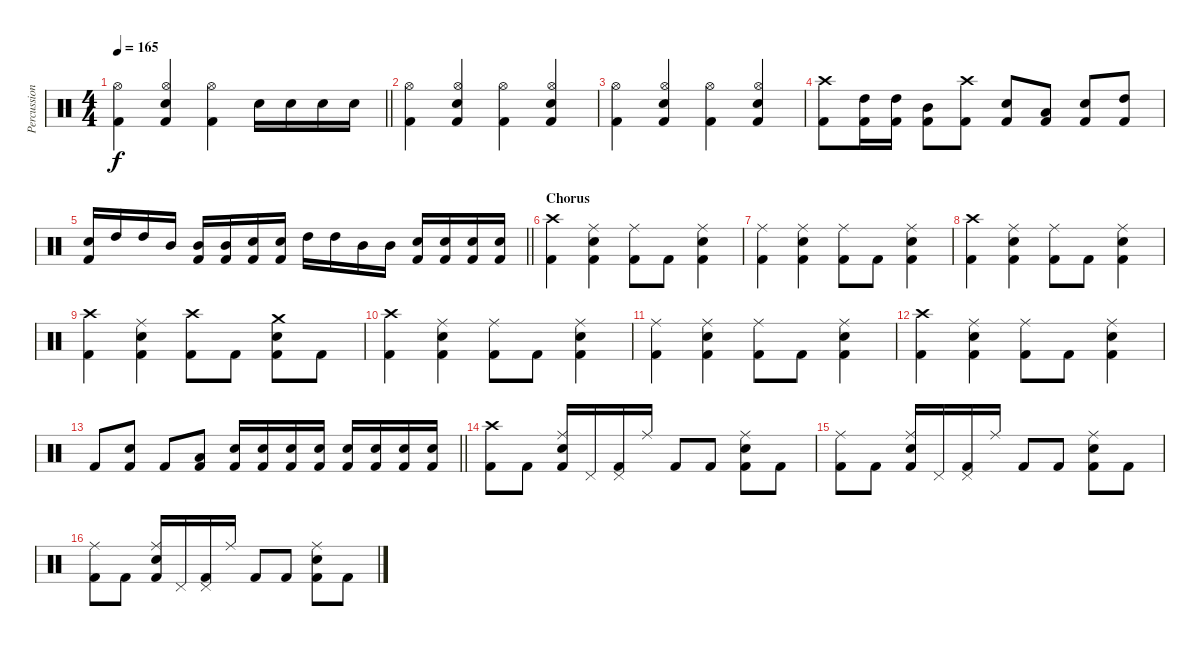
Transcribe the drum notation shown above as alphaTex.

\track ("Percussion" "Percussion") {instrument percussion}
\staff {score}
\articulation defaults
\ts (4 4)
\tempo 165
\clef neutral
\barLineRight lightlight
\ks c
("Kick (hit) 2" "Hi-Hat (open)").4{dy f} ("Hi-Hat (open)" "Snare (hit) 2" "Kick (hit) 2").4 ("Kick (hit) 2" "Hi-Hat (open)").4 "Snare (hit) 2".16 "Snare (hit) 2".16 "Snare (hit) 2".16 "Snare (hit) 2".16 |
("Kick (hit) 2" "Hi-Hat (open)").4 ("Hi-Hat (open)" "Snare (hit) 2" "Kick (hit) 2").4 ("Kick (hit) 2" "Hi-Hat (open)").4 ("Hi-Hat (open)" "Snare (hit) 2" "Kick (hit) 2").4 |
("Kick (hit) 2" "Hi-Hat (open)").4 ("Hi-Hat (open)" "Snare (hit) 2" "Kick (hit) 2").4 ("Kick (hit) 2" "Hi-Hat (open)").4 ("Hi-Hat (open)" "Snare (hit) 2" "Kick (hit) 2").4 |
("Kick (hit) 2" "Crash high (hit)").8 ("Kick (hit) 2" "High Tom (hit)").16 ("Kick (hit) 2" "High Tom (hit)").16 ("Kick (hit) 2" "Mid Tom (hit)").8 ("Kick (hit) 2" "Crash high (hit)").8 ("Kick (hit) 2" "Snare (hit) 2").8 ("Kick (hit) 2" "Low Tom (hit)").8 ("Kick (hit) 2" "Snare (hit) 2").8 ("Kick (hit) 2" "High Tom (hit)").8 |
\barLineRight lightlight
("Snare (hit) 2" "Kick (hit) 2").16 "High Tom (hit)".16 "High Tom (hit)".16 "Mid Tom (hit)".16 ("Mid Tom (hit)" "Kick (hit) 2").16 ("Mid Tom (hit)" "Kick (hit) 2").16 ("Snare (hit) 2" "Kick (hit) 2").16 ("Snare (hit) 2" "Kick (hit) 2").16 "High Tom (hit)".16 "High Tom (hit)".16 "Mid Tom (hit)".16 "Mid Tom (hit)".16 ("Snare (hit) 2" "Kick (hit) 2").16 ("Snare (hit) 2" "Kick (hit) 2").16 ("Snare (hit) 2" "Kick (hit) 2").16 ("Snare (hit) 2" "Kick (hit) 2").16 |
\section ("" "Chorus")
("Crash high (hit)" "Kick (hit) 2").4 ("Snare (hit) 2" "Ride (middle)" "Kick (hit) 2").4 ("Ride (middle)" "Kick (hit) 2").8 "Kick (hit) 2".8 ("Snare (hit) 2" "Ride (middle)" "Kick (hit) 2").4 |
("Ride (middle)" "Kick (hit) 2").4 ("Snare (hit) 2" "Ride (middle)" "Kick (hit) 2").4 ("Ride (middle)" "Kick (hit) 2").8 "Kick (hit) 2".8 ("Snare (hit) 2" "Ride (middle)" "Kick (hit) 2").4 |
("Crash high (hit)" "Kick (hit) 2").4 ("Snare (hit) 2" "Ride (middle)" "Kick (hit) 2").4 ("Ride (middle)" "Kick (hit) 2").8 "Kick (hit) 2".8 ("Snare (hit) 2" "Ride (middle)" "Kick (hit) 2").4 |
("Crash high (hit)" "Kick (hit) 2").4 ("Snare (hit) 2" "Ride (middle)" "Kick (hit) 2").4 ("Crash high (hit)" "Kick (hit) 2").8 "Kick (hit) 2".8 ("Snare (hit) 2" "Crash medium (hit)" "Kick (hit) 2").8 "Kick (hit) 2".8 |
("Crash high (hit)" "Kick (hit) 2").4 ("Snare (hit) 2" "Ride (middle)" "Kick (hit) 2").4 ("Ride (middle)" "Kick (hit) 2").8 "Kick (hit) 2".8 ("Snare (hit) 2" "Ride (middle)" "Kick (hit) 2").4 |
("Ride (middle)" "Kick (hit) 2").4 ("Snare (hit) 2" "Ride (middle)" "Kick (hit) 2").4 ("Ride (middle)" "Kick (hit) 2").8 "Kick (hit) 2".8 ("Snare (hit) 2" "Ride (middle)" "Kick (hit) 2").4 |
("Crash high (hit)" "Kick (hit) 2").4 ("Snare (hit) 2" "Ride (middle)" "Kick (hit) 2").4 ("Ride (middle)" "Kick (hit) 2").8 "Kick (hit) 2".8 ("Snare (hit) 2" "Ride (middle)" "Kick (hit) 2").4 |
\barLineRight lightlight "Kick (hit) 2".8
("Snare (hit) 2" "Kick (hit) 2").8 "Kick (hit) 2".8 ("Low Tom (hit)" "Kick (hit) 2").8 ("Snare (hit) 2" "Kick (hit) 2").16 ("Snare (hit) 2" "Kick (hit) 2").16 ("Snare (hit) 2" "Kick (hit) 2").16 ("Snare (hit) 2" "Kick (hit) 2").16 ("Snare (hit) 2" "Kick (hit) 2").16 ("Snare (hit) 2" "Kick (hit) 2").16 ("Snare (hit) 2" "Kick (hit) 2").16 ("Snare (hit) 2" "Kick (hit) 2").16 |
("Crash high (hit)" "Kick (hit) 2").8 "Kick (hit) 2".8 ("Snare (hit) 2" "Ride (middle)" "Kick (hit) 2").16 "Pedal Hi-Hat (hit)".16 ("Pedal Hi-Hat (hit)" "Kick (hit) 2").16 "Ride (middle)".16 "Kick (hit) 2".8 "Kick (hit) 2".8 ("Ride (middle)" "Snare (hit) 2" "Kick (hit) 2").8 "Kick (hit) 2".8 |
("Ride (middle)" "Kick (hit) 2").8 "Kick (hit) 2".8 ("Snare (hit) 2" "Ride (middle)" "Kick (hit) 2").16 "Pedal Hi-Hat (hit)".16 ("Pedal Hi-Hat (hit)" "Kick (hit) 2").16 "Ride (middle)".16 "Kick (hit) 2".8 "Kick (hit) 2".8 ("Ride (middle)" "Snare (hit) 2" "Kick (hit) 2").8 "Kick (hit) 2".8 |
("Ride (middle)" "Kick (hit) 2").8 "Kick (hit) 2".8 ("Snare (hit) 2" "Ride (middle)" "Kick (hit) 2").16 "Pedal Hi-Hat (hit)".16 ("Pedal Hi-Hat (hit)" "Kick (hit) 2").16 "Ride (middle)".16 "Kick (hit) 2".8 "Kick (hit) 2".8 ("Ride (middle)" "Snare (hit) 2" "Kick (hit) 2").8 "Kick (hit) 2".8
